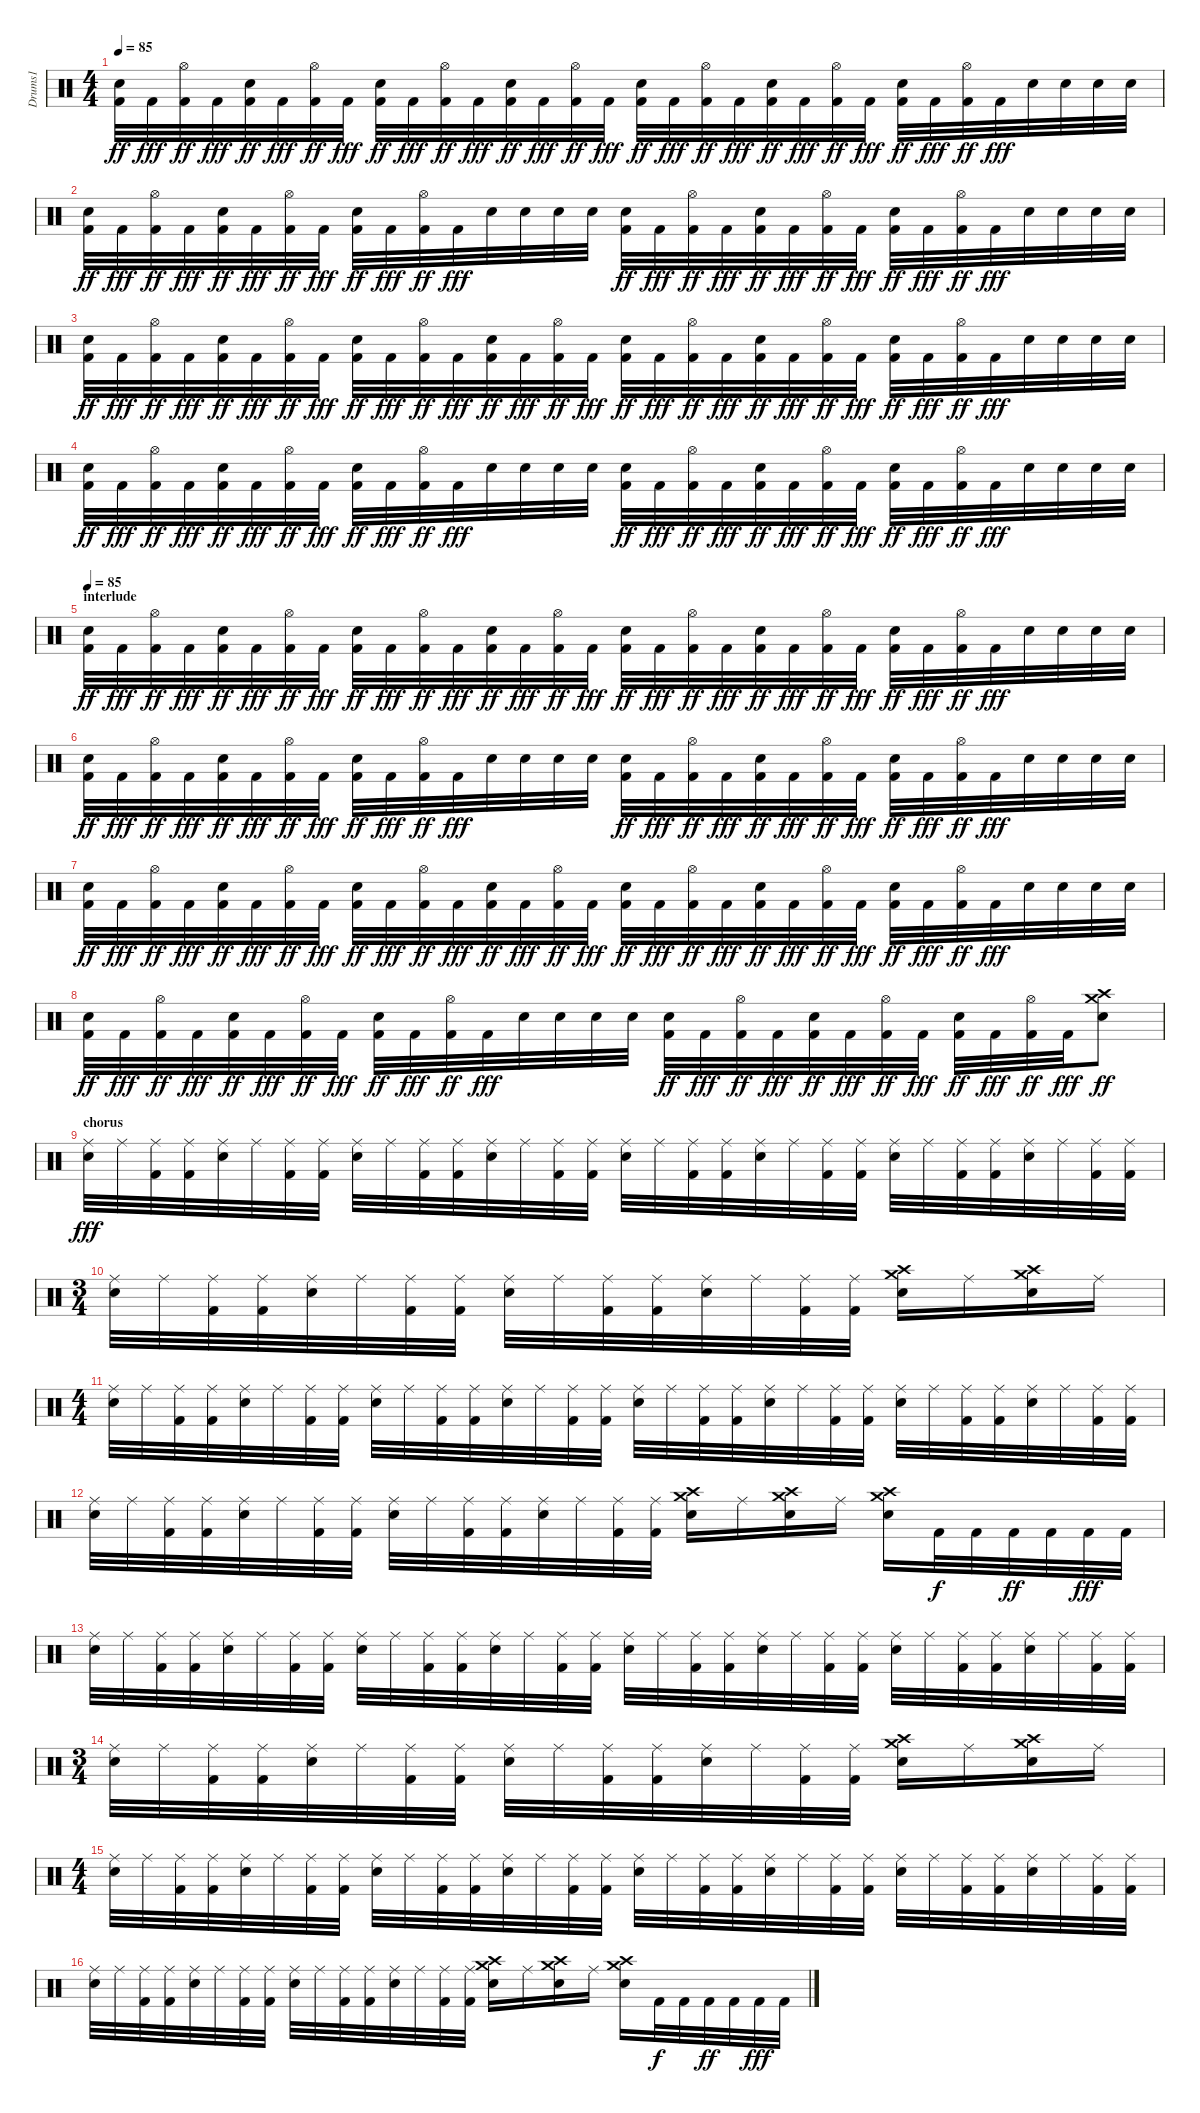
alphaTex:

\track ("Drums1" "Drums1") {instrument percussion}
\staff {score}
\articulation defaults
\ts (4 4)
\tempo 85
\clef neutral
\ks c
("Kick (hit) 2" "Electric Snare (hit)").32{dy ff} "Kick (hit) 2".32{dy fff} ("Kick (hit) 2" "Hi-Hat (open)").32{dy ff} "Kick (hit) 2".32{dy fff} ("Kick (hit) 2" "Electric Snare (hit)").32{dy ff} "Kick (hit) 2".32{dy fff} ("Kick (hit) 2" "Hi-Hat (open)").32{dy ff} "Kick (hit) 2".32{dy fff} ("Kick (hit) 2" "Electric Snare (hit)").32{dy ff} "Kick (hit) 2".32{dy fff} ("Kick (hit) 2" "Hi-Hat (open)").32{dy ff} "Kick (hit) 2".32{dy fff} ("Kick (hit) 2" "Electric Snare (hit)").32{dy ff} "Kick (hit) 2".32{dy fff} ("Kick (hit) 2" "Hi-Hat (open)").32{dy ff} "Kick (hit) 2".32{dy fff} ("Kick (hit) 2" "Electric Snare (hit)").32{dy ff} "Kick (hit) 2".32{dy fff} ("Kick (hit) 2" "Hi-Hat (open)").32{dy ff} "Kick (hit) 2".32{dy fff} ("Kick (hit) 2" "Electric Snare (hit)").32{dy ff} "Kick (hit) 2".32{dy fff} ("Kick (hit) 2" "Hi-Hat (open)").32{dy ff} "Kick (hit) 2".32{dy fff} ("Kick (hit) 2" "Electric Snare (hit)").32{dy ff} "Kick (hit) 2".32{dy fff} ("Kick (hit) 2" "Hi-Hat (open)").32{dy ff} "Kick (hit) 2".32{dy fff} "Electric Snare (hit)".32 "Electric Snare (hit)".32 "Electric Snare (hit)".32 "Electric Snare (hit)".32 |
("Kick (hit) 2" "Electric Snare (hit)").32{dy ff} "Kick (hit) 2".32{dy fff} ("Kick (hit) 2" "Hi-Hat (open)").32{dy ff} "Kick (hit) 2".32{dy fff} ("Kick (hit) 2" "Electric Snare (hit)").32{dy ff} "Kick (hit) 2".32{dy fff} ("Kick (hit) 2" "Hi-Hat (open)").32{dy ff} "Kick (hit) 2".32{dy fff} ("Kick (hit) 2" "Electric Snare (hit)").32{dy ff} "Kick (hit) 2".32{dy fff} ("Kick (hit) 2" "Hi-Hat (open)").32{dy ff} "Kick (hit) 2".32{dy fff} "Electric Snare (hit)".32 "Electric Snare (hit)".32 "Electric Snare (hit)".32 "Electric Snare (hit)".32 ("Kick (hit) 2" "Electric Snare (hit)").32{dy ff} "Kick (hit) 2".32{dy fff} ("Kick (hit) 2" "Hi-Hat (open)").32{dy ff} "Kick (hit) 2".32{dy fff} ("Kick (hit) 2" "Electric Snare (hit)").32{dy ff} "Kick (hit) 2".32{dy fff} ("Kick (hit) 2" "Hi-Hat (open)").32{dy ff} "Kick (hit) 2".32{dy fff} ("Kick (hit) 2" "Electric Snare (hit)").32{dy ff} "Kick (hit) 2".32{dy fff} ("Kick (hit) 2" "Hi-Hat (open)").32{dy ff} "Kick (hit) 2".32{dy fff} "Electric Snare (hit)".32 "Electric Snare (hit)".32 "Electric Snare (hit)".32 "Electric Snare (hit)".32 |
("Kick (hit) 2" "Electric Snare (hit)").32{dy ff} "Kick (hit) 2".32{dy fff} ("Kick (hit) 2" "Hi-Hat (open)").32{dy ff} "Kick (hit) 2".32{dy fff} ("Kick (hit) 2" "Electric Snare (hit)").32{dy ff} "Kick (hit) 2".32{dy fff} ("Kick (hit) 2" "Hi-Hat (open)").32{dy ff} "Kick (hit) 2".32{dy fff} ("Kick (hit) 2" "Electric Snare (hit)").32{dy ff} "Kick (hit) 2".32{dy fff} ("Kick (hit) 2" "Hi-Hat (open)").32{dy ff} "Kick (hit) 2".32{dy fff} ("Kick (hit) 2" "Electric Snare (hit)").32{dy ff} "Kick (hit) 2".32{dy fff} ("Kick (hit) 2" "Hi-Hat (open)").32{dy ff} "Kick (hit) 2".32{dy fff} ("Kick (hit) 2" "Electric Snare (hit)").32{dy ff} "Kick (hit) 2".32{dy fff} ("Kick (hit) 2" "Hi-Hat (open)").32{dy ff} "Kick (hit) 2".32{dy fff} ("Kick (hit) 2" "Electric Snare (hit)").32{dy ff} "Kick (hit) 2".32{dy fff} ("Kick (hit) 2" "Hi-Hat (open)").32{dy ff} "Kick (hit) 2".32{dy fff} ("Kick (hit) 2" "Electric Snare (hit)").32{dy ff} "Kick (hit) 2".32{dy fff} ("Kick (hit) 2" "Hi-Hat (open)").32{dy ff} "Kick (hit) 2".32{dy fff} "Electric Snare (hit)".32 "Electric Snare (hit)".32 "Electric Snare (hit)".32 "Electric Snare (hit)".32 |
("Kick (hit) 2" "Electric Snare (hit)").32{dy ff} "Kick (hit) 2".32{dy fff} ("Kick (hit) 2" "Hi-Hat (open)").32{dy ff} "Kick (hit) 2".32{dy fff} ("Kick (hit) 2" "Electric Snare (hit)").32{dy ff} "Kick (hit) 2".32{dy fff} ("Kick (hit) 2" "Hi-Hat (open)").32{dy ff} "Kick (hit) 2".32{dy fff} ("Kick (hit) 2" "Electric Snare (hit)").32{dy ff} "Kick (hit) 2".32{dy fff} ("Kick (hit) 2" "Hi-Hat (open)").32{dy ff} "Kick (hit) 2".32{dy fff} "Electric Snare (hit)".32 "Electric Snare (hit)".32 "Electric Snare (hit)".32 "Electric Snare (hit)".32 ("Kick (hit) 2" "Electric Snare (hit)").32{dy ff} "Kick (hit) 2".32{dy fff} ("Kick (hit) 2" "Hi-Hat (open)").32{dy ff} "Kick (hit) 2".32{dy fff} ("Kick (hit) 2" "Electric Snare (hit)").32{dy ff} "Kick (hit) 2".32{dy fff} ("Kick (hit) 2" "Hi-Hat (open)").32{dy ff} "Kick (hit) 2".32{dy fff} ("Kick (hit) 2" "Electric Snare (hit)").32{dy ff} "Kick (hit) 2".32{dy fff} ("Kick (hit) 2" "Hi-Hat (open)").32{dy ff} "Kick (hit) 2".32{dy fff} "Electric Snare (hit)".32 "Electric Snare (hit)".32 "Electric Snare (hit)".32 "Electric Snare (hit)".32 |
\section ("" "interlude")
\tempo 85
("Kick (hit) 2" "Electric Snare (hit)").32{dy ff} "Kick (hit) 2".32{dy fff} ("Kick (hit) 2" "Hi-Hat (open)").32{dy ff} "Kick (hit) 2".32{dy fff} ("Kick (hit) 2" "Electric Snare (hit)").32{dy ff} "Kick (hit) 2".32{dy fff} ("Kick (hit) 2" "Hi-Hat (open)").32{dy ff} "Kick (hit) 2".32{dy fff} ("Kick (hit) 2" "Electric Snare (hit)").32{dy ff} "Kick (hit) 2".32{dy fff} ("Kick (hit) 2" "Hi-Hat (open)").32{dy ff} "Kick (hit) 2".32{dy fff} ("Kick (hit) 2" "Electric Snare (hit)").32{dy ff} "Kick (hit) 2".32{dy fff} ("Kick (hit) 2" "Hi-Hat (open)").32{dy ff} "Kick (hit) 2".32{dy fff} ("Kick (hit) 2" "Electric Snare (hit)").32{dy ff} "Kick (hit) 2".32{dy fff} ("Kick (hit) 2" "Hi-Hat (open)").32{dy ff} "Kick (hit) 2".32{dy fff} ("Kick (hit) 2" "Electric Snare (hit)").32{dy ff} "Kick (hit) 2".32{dy fff} ("Kick (hit) 2" "Hi-Hat (open)").32{dy ff} "Kick (hit) 2".32{dy fff} ("Kick (hit) 2" "Electric Snare (hit)").32{dy ff} "Kick (hit) 2".32{dy fff} ("Kick (hit) 2" "Hi-Hat (open)").32{dy ff} "Kick (hit) 2".32{dy fff} "Electric Snare (hit)".32 "Electric Snare (hit)".32 "Electric Snare (hit)".32 "Electric Snare (hit)".32 |
("Kick (hit) 2" "Electric Snare (hit)").32{dy ff} "Kick (hit) 2".32{dy fff} ("Kick (hit) 2" "Hi-Hat (open)").32{dy ff} "Kick (hit) 2".32{dy fff} ("Kick (hit) 2" "Electric Snare (hit)").32{dy ff} "Kick (hit) 2".32{dy fff} ("Kick (hit) 2" "Hi-Hat (open)").32{dy ff} "Kick (hit) 2".32{dy fff} ("Kick (hit) 2" "Electric Snare (hit)").32{dy ff} "Kick (hit) 2".32{dy fff} ("Kick (hit) 2" "Hi-Hat (open)").32{dy ff} "Kick (hit) 2".32{dy fff} "Electric Snare (hit)".32 "Electric Snare (hit)".32 "Electric Snare (hit)".32 "Electric Snare (hit)".32 ("Kick (hit) 2" "Electric Snare (hit)").32{dy ff} "Kick (hit) 2".32{dy fff} ("Kick (hit) 2" "Hi-Hat (open)").32{dy ff} "Kick (hit) 2".32{dy fff} ("Kick (hit) 2" "Electric Snare (hit)").32{dy ff} "Kick (hit) 2".32{dy fff} ("Kick (hit) 2" "Hi-Hat (open)").32{dy ff} "Kick (hit) 2".32{dy fff} ("Kick (hit) 2" "Electric Snare (hit)").32{dy ff} "Kick (hit) 2".32{dy fff} ("Kick (hit) 2" "Hi-Hat (open)").32{dy ff} "Kick (hit) 2".32{dy fff} "Electric Snare (hit)".32 "Electric Snare (hit)".32 "Electric Snare (hit)".32 "Electric Snare (hit)".32 |
("Kick (hit) 2" "Electric Snare (hit)").32{dy ff} "Kick (hit) 2".32{dy fff} ("Kick (hit) 2" "Hi-Hat (open)").32{dy ff} "Kick (hit) 2".32{dy fff} ("Kick (hit) 2" "Electric Snare (hit)").32{dy ff} "Kick (hit) 2".32{dy fff} ("Kick (hit) 2" "Hi-Hat (open)").32{dy ff} "Kick (hit) 2".32{dy fff} ("Kick (hit) 2" "Electric Snare (hit)").32{dy ff} "Kick (hit) 2".32{dy fff} ("Kick (hit) 2" "Hi-Hat (open)").32{dy ff} "Kick (hit) 2".32{dy fff} ("Kick (hit) 2" "Electric Snare (hit)").32{dy ff} "Kick (hit) 2".32{dy fff} ("Kick (hit) 2" "Hi-Hat (open)").32{dy ff} "Kick (hit) 2".32{dy fff} ("Kick (hit) 2" "Electric Snare (hit)").32{dy ff} "Kick (hit) 2".32{dy fff} ("Kick (hit) 2" "Hi-Hat (open)").32{dy ff} "Kick (hit) 2".32{dy fff} ("Kick (hit) 2" "Electric Snare (hit)").32{dy ff} "Kick (hit) 2".32{dy fff} ("Kick (hit) 2" "Hi-Hat (open)").32{dy ff} "Kick (hit) 2".32{dy fff} ("Kick (hit) 2" "Electric Snare (hit)").32{dy ff} "Kick (hit) 2".32{dy fff} ("Kick (hit) 2" "Hi-Hat (open)").32{dy ff} "Kick (hit) 2".32{dy fff} "Electric Snare (hit)".32 "Electric Snare (hit)".32 "Electric Snare (hit)".32 "Electric Snare (hit)".32 |
("Kick (hit) 2" "Electric Snare (hit)").32{dy ff} "Kick (hit) 2".32{dy fff} ("Kick (hit) 2" "Hi-Hat (open)").32{dy ff} "Kick (hit) 2".32{dy fff} ("Kick (hit) 2" "Electric Snare (hit)").32{dy ff} "Kick (hit) 2".32{dy fff} ("Kick (hit) 2" "Hi-Hat (open)").32{dy ff} "Kick (hit) 2".32{dy fff} ("Kick (hit) 2" "Electric Snare (hit)").32{dy ff} "Kick (hit) 2".32{dy fff} ("Kick (hit) 2" "Hi-Hat (open)").32{dy ff} "Kick (hit) 2".32{dy fff} "Electric Snare (hit)".32 "Electric Snare (hit)".32 "Electric Snare (hit)".32 "Electric Snare (hit)".32 ("Kick (hit) 2" "Electric Snare (hit)").32{dy ff} "Kick (hit) 2".32{dy fff} ("Kick (hit) 2" "Hi-Hat (open)").32{dy ff} "Kick (hit) 2".32{dy fff} ("Kick (hit) 2" "Electric Snare (hit)").32{dy ff} "Kick (hit) 2".32{dy fff} ("Kick (hit) 2" "Hi-Hat (open)").32{dy ff} "Kick (hit) 2".32{dy fff} ("Kick (hit) 2" "Electric Snare (hit)").32{dy ff} "Kick (hit) 2".32{dy fff} ("Kick (hit) 2" "Hi-Hat (open)").32{dy ff} "Kick (hit) 2".32{dy fff} ("Electric Snare (hit)" "Crash medium (hit)" "Crash high (hit)").8{dy ff} |
\section ("" "chorus")
("Electric Snare (hit)" "Ride (middle)").32{dy fff} "Ride (middle)".32 ("Kick (hit) 2" "Ride (middle)").32 ("Kick (hit) 2" "Ride (middle)").32 ("Electric Snare (hit)" "Ride (middle)").32 "Ride (middle)".32 ("Kick (hit) 2" "Ride (middle)").32 ("Kick (hit) 2" "Ride (middle)").32 ("Electric Snare (hit)" "Ride (middle)").32 "Ride (middle)".32 ("Kick (hit) 2" "Ride (middle)").32 ("Kick (hit) 2" "Ride (middle)").32 ("Electric Snare (hit)" "Ride (middle)").32 "Ride (middle)".32 ("Kick (hit) 2" "Ride (middle)").32 ("Kick (hit) 2" "Ride (middle)").32 ("Electric Snare (hit)" "Ride (middle)").32 "Ride (middle)".32 ("Kick (hit) 2" "Ride (middle)").32 ("Kick (hit) 2" "Ride (middle)").32 ("Electric Snare (hit)" "Ride (middle)").32 "Ride (middle)".32 ("Kick (hit) 2" "Ride (middle)").32 ("Kick (hit) 2" "Ride (middle)").32 ("Electric Snare (hit)" "Ride (middle)").32 "Ride (middle)".32 ("Kick (hit) 2" "Ride (middle)").32 ("Kick (hit) 2" "Ride (middle)").32 ("Electric Snare (hit)" "Ride (middle)").32 "Ride (middle)".32 ("Kick (hit) 2" "Ride (middle)").32 ("Kick (hit) 2" "Ride (middle)").32 |
\ts (3 4)
("Electric Snare (hit)" "Ride (middle)").32 "Ride (middle)".32 ("Kick (hit) 2" "Ride (middle)").32 ("Kick (hit) 2" "Ride (middle)").32 ("Electric Snare (hit)" "Ride (middle)").32 "Ride (middle)".32 ("Kick (hit) 2" "Ride (middle)").32 ("Kick (hit) 2" "Ride (middle)").32 ("Electric Snare (hit)" "Ride (middle)").32 "Ride (middle)".32 ("Kick (hit) 2" "Ride (middle)").32 ("Kick (hit) 2" "Ride (middle)").32 ("Electric Snare (hit)" "Ride (middle)").32 "Ride (middle)".32 ("Kick (hit) 2" "Ride (middle)").32 ("Kick (hit) 2" "Ride (middle)").32 ("Crash high (hit)" "Crash medium (hit)" "Electric Snare (hit)").16 "Ride (middle)".16 ("Crash high (hit)" "Crash medium (hit)" "Electric Snare (hit)").16 "Ride (middle)".16 |
\ts (4 4)
("Electric Snare (hit)" "Ride (middle)").32 "Ride (middle)".32 ("Kick (hit) 2" "Ride (middle)").32 ("Kick (hit) 2" "Ride (middle)").32 ("Electric Snare (hit)" "Ride (middle)").32 "Ride (middle)".32 ("Kick (hit) 2" "Ride (middle)").32 ("Kick (hit) 2" "Ride (middle)").32 ("Electric Snare (hit)" "Ride (middle)").32 "Ride (middle)".32 ("Kick (hit) 2" "Ride (middle)").32 ("Kick (hit) 2" "Ride (middle)").32 ("Electric Snare (hit)" "Ride (middle)").32 "Ride (middle)".32 ("Kick (hit) 2" "Ride (middle)").32 ("Kick (hit) 2" "Ride (middle)").32 ("Electric Snare (hit)" "Ride (middle)").32 "Ride (middle)".32 ("Kick (hit) 2" "Ride (middle)").32 ("Kick (hit) 2" "Ride (middle)").32 ("Electric Snare (hit)" "Ride (middle)").32 "Ride (middle)".32 ("Kick (hit) 2" "Ride (middle)").32 ("Kick (hit) 2" "Ride (middle)").32 ("Electric Snare (hit)" "Ride (middle)").32 "Ride (middle)".32 ("Kick (hit) 2" "Ride (middle)").32 ("Kick (hit) 2" "Ride (middle)").32 ("Electric Snare (hit)" "Ride (middle)").32 "Ride (middle)".32 ("Kick (hit) 2" "Ride (middle)").32 ("Kick (hit) 2" "Ride (middle)").32 |
("Electric Snare (hit)" "Ride (middle)").32 "Ride (middle)".32 ("Kick (hit) 2" "Ride (middle)").32 ("Kick (hit) 2" "Ride (middle)").32 ("Electric Snare (hit)" "Ride (middle)").32 "Ride (middle)".32 ("Kick (hit) 2" "Ride (middle)").32 ("Kick (hit) 2" "Ride (middle)").32 ("Electric Snare (hit)" "Ride (middle)").32 "Ride (middle)".32 ("Kick (hit) 2" "Ride (middle)").32 ("Kick (hit) 2" "Ride (middle)").32 ("Electric Snare (hit)" "Ride (middle)").32 "Ride (middle)".32 ("Kick (hit) 2" "Ride (middle)").32 ("Kick (hit) 2" "Ride (middle)").32 ("Crash high (hit)" "Crash medium (hit)" "Electric Snare (hit)").16 "Ride (middle)".16 ("Crash high (hit)" "Crash medium (hit)" "Electric Snare (hit)").16 "Ride (middle)".16 ("Electric Snare (hit)" "Crash medium (hit)" "Crash high (hit)").16 "Kick (hit) 2".32{dy f} "Kick (hit) 2".32 "Kick (hit) 2".32{dy ff} "Kick (hit) 2".32 "Kick (hit) 2".32{dy fff} "Kick (hit) 2".32 |
("Electric Snare (hit)" "Ride (middle)").32 "Ride (middle)".32 ("Kick (hit) 2" "Ride (middle)").32 ("Kick (hit) 2" "Ride (middle)").32 ("Electric Snare (hit)" "Ride (middle)").32 "Ride (middle)".32 ("Kick (hit) 2" "Ride (middle)").32 ("Kick (hit) 2" "Ride (middle)").32 ("Electric Snare (hit)" "Ride (middle)").32 "Ride (middle)".32 ("Kick (hit) 2" "Ride (middle)").32 ("Kick (hit) 2" "Ride (middle)").32 ("Electric Snare (hit)" "Ride (middle)").32 "Ride (middle)".32 ("Kick (hit) 2" "Ride (middle)").32 ("Kick (hit) 2" "Ride (middle)").32 ("Electric Snare (hit)" "Ride (middle)").32 "Ride (middle)".32 ("Kick (hit) 2" "Ride (middle)").32 ("Kick (hit) 2" "Ride (middle)").32 ("Electric Snare (hit)" "Ride (middle)").32 "Ride (middle)".32 ("Kick (hit) 2" "Ride (middle)").32 ("Kick (hit) 2" "Ride (middle)").32 ("Electric Snare (hit)" "Ride (middle)").32 "Ride (middle)".32 ("Kick (hit) 2" "Ride (middle)").32 ("Kick (hit) 2" "Ride (middle)").32 ("Electric Snare (hit)" "Ride (middle)").32 "Ride (middle)".32 ("Kick (hit) 2" "Ride (middle)").32 ("Kick (hit) 2" "Ride (middle)").32 |
\ts (3 4)
("Electric Snare (hit)" "Ride (middle)").32 "Ride (middle)".32 ("Kick (hit) 2" "Ride (middle)").32 ("Kick (hit) 2" "Ride (middle)").32 ("Electric Snare (hit)" "Ride (middle)").32 "Ride (middle)".32 ("Kick (hit) 2" "Ride (middle)").32 ("Kick (hit) 2" "Ride (middle)").32 ("Electric Snare (hit)" "Ride (middle)").32 "Ride (middle)".32 ("Kick (hit) 2" "Ride (middle)").32 ("Kick (hit) 2" "Ride (middle)").32 ("Electric Snare (hit)" "Ride (middle)").32 "Ride (middle)".32 ("Kick (hit) 2" "Ride (middle)").32 ("Kick (hit) 2" "Ride (middle)").32 ("Crash high (hit)" "Crash medium (hit)" "Electric Snare (hit)").16 "Ride (middle)".16 ("Crash high (hit)" "Crash medium (hit)" "Electric Snare (hit)").16 "Ride (middle)".16 |
\ts (4 4)
("Electric Snare (hit)" "Ride (middle)").32 "Ride (middle)".32 ("Kick (hit) 2" "Ride (middle)").32 ("Kick (hit) 2" "Ride (middle)").32 ("Electric Snare (hit)" "Ride (middle)").32 "Ride (middle)".32 ("Kick (hit) 2" "Ride (middle)").32 ("Kick (hit) 2" "Ride (middle)").32 ("Electric Snare (hit)" "Ride (middle)").32 "Ride (middle)".32 ("Kick (hit) 2" "Ride (middle)").32 ("Kick (hit) 2" "Ride (middle)").32 ("Electric Snare (hit)" "Ride (middle)").32 "Ride (middle)".32 ("Kick (hit) 2" "Ride (middle)").32 ("Kick (hit) 2" "Ride (middle)").32 ("Electric Snare (hit)" "Ride (middle)").32 "Ride (middle)".32 ("Kick (hit) 2" "Ride (middle)").32 ("Kick (hit) 2" "Ride (middle)").32 ("Electric Snare (hit)" "Ride (middle)").32 "Ride (middle)".32 ("Kick (hit) 2" "Ride (middle)").32 ("Kick (hit) 2" "Ride (middle)").32 ("Electric Snare (hit)" "Ride (middle)").32 "Ride (middle)".32 ("Kick (hit) 2" "Ride (middle)").32 ("Kick (hit) 2" "Ride (middle)").32 ("Electric Snare (hit)" "Ride (middle)").32 "Ride (middle)".32 ("Kick (hit) 2" "Ride (middle)").32 ("Kick (hit) 2" "Ride (middle)").32 |
("Electric Snare (hit)" "Ride (middle)").32 "Ride (middle)".32 ("Kick (hit) 2" "Ride (middle)").32 ("Kick (hit) 2" "Ride (middle)").32 ("Electric Snare (hit)" "Ride (middle)").32 "Ride (middle)".32 ("Kick (hit) 2" "Ride (middle)").32 ("Kick (hit) 2" "Ride (middle)").32 ("Electric Snare (hit)" "Ride (middle)").32 "Ride (middle)".32 ("Kick (hit) 2" "Ride (middle)").32 ("Kick (hit) 2" "Ride (middle)").32 ("Electric Snare (hit)" "Ride (middle)").32 "Ride (middle)".32 ("Kick (hit) 2" "Ride (middle)").32 ("Kick (hit) 2" "Ride (middle)").32 ("Crash high (hit)" "Crash medium (hit)" "Electric Snare (hit)").16 "Ride (middle)".16 ("Crash high (hit)" "Crash medium (hit)" "Electric Snare (hit)").16 "Ride (middle)".16 ("Electric Snare (hit)" "Crash medium (hit)" "Crash high (hit)").16 "Kick (hit) 2".32{dy f} "Kick (hit) 2".32 "Kick (hit) 2".32{dy ff} "Kick (hit) 2".32 "Kick (hit) 2".32{dy fff} "Kick (hit) 2".32
